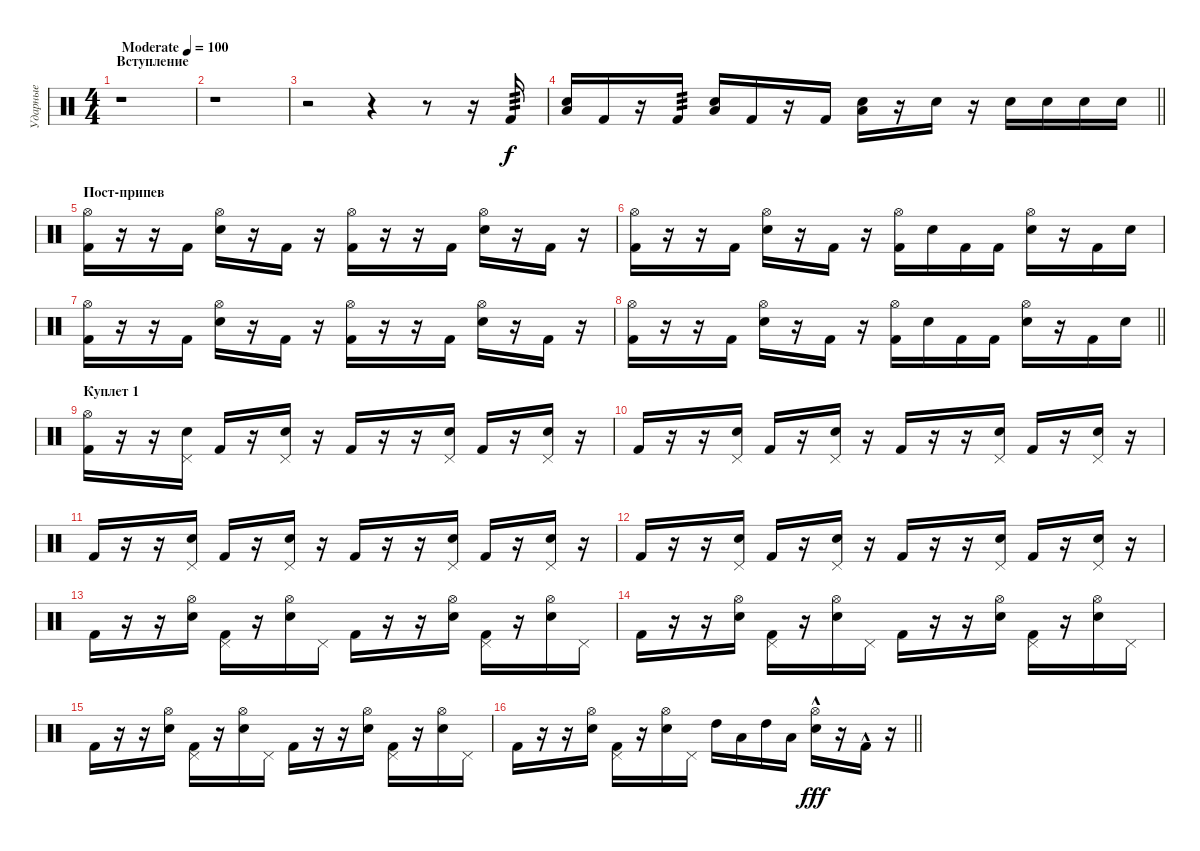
\track ("Ударные" "Ударные") {instrument percussion}
\staff {score}
\articulation defaults
\ts (4 4)
\section ("" "Вступление")
\tempo (100 "Moderate")
\clef neutral
\ks c
r.1{dy f} |
r.1 |
r.2 r.4 r.8 r.16 "Kick (hit) 2".16{tp 3} |
\barLineRight lightlight
("Electric Snare (hit)" "Low Tom (hit)").16 "Kick (hit) 2".16 r.16 "Kick (hit) 2".16{tp 3} ("Electric Snare (hit)" "Low Tom (hit)").16 "Kick (hit) 2".16 r.16 "Kick (hit) 2".16 ("Electric Snare (hit)" "Low Tom (hit)").16 r.16 "Electric Snare (hit)".16 r.16 "Electric Snare (hit)".16 "Electric Snare (hit)".16 "Electric Snare (hit)".16 "Electric Snare (hit)".16 |
\section ("" "Пост-припев")
("Kick (hit) 2" "Hi-Hat (open)").16 r.16 r.16 "Kick (hit) 2".16 ("Electric Snare (hit)" "Hi-Hat (open)").16 r.16 "Kick (hit) 2".16 r.16 ("Kick (hit) 2" "Hi-Hat (open)").16 r.16 r.16 "Kick (hit) 2".16 ("Electric Snare (hit)" "Hi-Hat (open)").16 r.16 "Kick (hit) 2".16 r.16 |
("Kick (hit) 2" "Hi-Hat (open)").16 r.16 r.16 "Kick (hit) 2".16 ("Electric Snare (hit)" "Hi-Hat (open)").16 r.16 "Kick (hit) 2".16 r.16 ("Kick (hit) 2" "Hi-Hat (open)").16 "Electric Snare (hit)".16 "Kick (hit) 2".16 "Kick (hit) 2".16 ("Electric Snare (hit)" "Hi-Hat (open)").16 r.16 "Kick (hit) 2".16 "Electric Snare (hit)".16 |
("Kick (hit) 2" "Hi-Hat (open)").16 r.16 r.16 "Kick (hit) 2".16 ("Electric Snare (hit)" "Hi-Hat (open)").16 r.16 "Kick (hit) 2".16 r.16 ("Kick (hit) 2" "Hi-Hat (open)").16 r.16 r.16 "Kick (hit) 2".16 ("Electric Snare (hit)" "Hi-Hat (open)").16 r.16 "Kick (hit) 2".16 r.16 |
\barLineRight lightlight
("Kick (hit) 2" "Hi-Hat (open)").16 r.16 r.16 "Kick (hit) 2".16 ("Electric Snare (hit)" "Hi-Hat (open)").16 r.16 "Kick (hit) 2".16 r.16 ("Kick (hit) 2" "Hi-Hat (open)").16 "Electric Snare (hit)".16 "Kick (hit) 2".16 "Kick (hit) 2".16 ("Electric Snare (hit)" "Hi-Hat (open)").16 r.16 "Kick (hit) 2".16 "Electric Snare (hit)".16 |
\section ("" "Куплет 1")
("Kick (hit) 2" "Hi-Hat (open)").16 r.16 r.16 ("Electric Snare (hit)" "Pedal Hi-Hat (hit)").16 "Kick (hit) 2".16 r.16 ("Electric Snare (hit)" "Pedal Hi-Hat (hit)").16 r.16 "Kick (hit) 2".16 r.16 r.16 ("Electric Snare (hit)" "Pedal Hi-Hat (hit)").16 "Kick (hit) 2".16 r.16 ("Electric Snare (hit)" "Pedal Hi-Hat (hit)").16 r.16 |
"Kick (hit) 2".16 r.16 r.16 ("Electric Snare (hit)" "Pedal Hi-Hat (hit)").16 "Kick (hit) 2".16 r.16 ("Electric Snare (hit)" "Pedal Hi-Hat (hit)").16 r.16 "Kick (hit) 2".16 r.16 r.16 ("Electric Snare (hit)" "Pedal Hi-Hat (hit)").16 "Kick (hit) 2".16 r.16 ("Electric Snare (hit)" "Pedal Hi-Hat (hit)").16 r.16 |
"Kick (hit) 2".16 r.16 r.16 ("Electric Snare (hit)" "Pedal Hi-Hat (hit)").16 "Kick (hit) 2".16 r.16 ("Electric Snare (hit)" "Pedal Hi-Hat (hit)").16 r.16 "Kick (hit) 2".16 r.16 r.16 ("Electric Snare (hit)" "Pedal Hi-Hat (hit)").16 "Kick (hit) 2".16 r.16 ("Electric Snare (hit)" "Pedal Hi-Hat (hit)").16 r.16 |
"Kick (hit) 2".16 r.16 r.16 ("Electric Snare (hit)" "Pedal Hi-Hat (hit)").16 "Kick (hit) 2".16 r.16 ("Electric Snare (hit)" "Pedal Hi-Hat (hit)").16 r.16 "Kick (hit) 2".16 r.16 r.16 ("Electric Snare (hit)" "Pedal Hi-Hat (hit)").16 "Kick (hit) 2".16 r.16 ("Electric Snare (hit)" "Pedal Hi-Hat (hit)").16 r.16 |
"Kick (hit) 2".16 r.16 r.16 ("Electric Snare (hit)" "Hi-Hat (open)").16 ("Kick (hit) 2" "Pedal Hi-Hat (hit)").16 r.16 ("Electric Snare (hit)" "Hi-Hat (open)").16 "Pedal Hi-Hat (hit)".16 "Kick (hit) 2".16 r.16 r.16 ("Electric Snare (hit)" "Hi-Hat (open)").16 ("Kick (hit) 2" "Pedal Hi-Hat (hit)").16 r.16 ("Electric Snare (hit)" "Hi-Hat (open)").16 "Pedal Hi-Hat (hit)".16 |
"Kick (hit) 2".16 r.16 r.16 ("Electric Snare (hit)" "Hi-Hat (open)").16 ("Kick (hit) 2" "Pedal Hi-Hat (hit)").16 r.16 ("Electric Snare (hit)" "Hi-Hat (open)").16 "Pedal Hi-Hat (hit)".16 "Kick (hit) 2".16 r.16 r.16 ("Electric Snare (hit)" "Hi-Hat (open)").16 ("Kick (hit) 2" "Pedal Hi-Hat (hit)").16 r.16 ("Electric Snare (hit)" "Hi-Hat (open)").16 "Pedal Hi-Hat (hit)".16 |
"Kick (hit) 2".16 r.16 r.16 ("Electric Snare (hit)" "Hi-Hat (open)").16 ("Kick (hit) 2" "Pedal Hi-Hat (hit)").16 r.16 ("Electric Snare (hit)" "Hi-Hat (open)").16 "Pedal Hi-Hat (hit)".16 "Kick (hit) 2".16 r.16 r.16 ("Electric Snare (hit)" "Hi-Hat (open)").16 ("Kick (hit) 2" "Pedal Hi-Hat (hit)").16 r.16 ("Electric Snare (hit)" "Hi-Hat (open)").16 "Pedal Hi-Hat (hit)".16 |
\barLineRight lightlight "Kick (hit) 2".16
r.16 r.16 ("Electric Snare (hit)" "Hi-Hat (open)").16 ("Kick (hit) 2" "Pedal Hi-Hat (hit)").16 r.16 ("Electric Snare (hit)" "Hi-Hat (open)").16 "Pedal Hi-Hat (hit)".16 "High Tom (hit)".16 "Low Tom (hit)".16 "High Tom (hit)".16 "Low Tom (hit)".16 ("Electric Snare (hit)"{hac} "Hi-Hat (open)").16{dy fff} r.16 "Kick (hit) 2"{hac}.16 r.16
